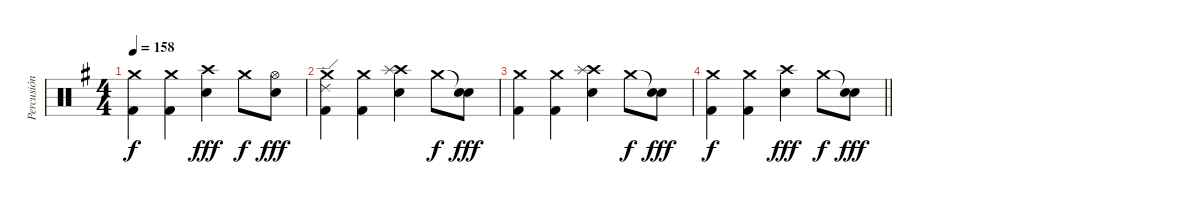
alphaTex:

\track ("Percusión" "Percusión") {instrument percussion}
\staff {score}
\articulation defaults
\ts (4 4)
\tempo 158
\clef neutral
\ks g
("Crash medium (hit)" "Kick (hit) 2").4{dy f} ("Crash medium (hit)" "Kick (hit) 2").4 ("Crash high (hit)" "Snare (hit) 2").4{dy fff} "Crash medium (hit)".8{dy f} ("Hi-Hat (open)" "Snare (hit) 2").8{dy fff} |
("Crash medium (hit)" "Ride (edge) 2" "Kick (hit) 2").4 ("Crash medium (hit)" "Kick (hit) 2").4 ("Crash high (hit)" "Splash (hit)" "Snare (hit) 2").4 "Crash medium (hit)".8{dy f} ("Snare (hit)"{t} "Snare (hit) 2").8{dy fff} |
("Crash medium (hit)" "Kick (hit) 2").4 ("Crash medium (hit)" "Kick (hit) 2").4 ("Crash high (hit)" "Splash (hit)" "Snare (hit) 2").4 "Crash medium (hit)".8{dy f} ("Snare (hit)"{t} "Snare (hit) 2").8{dy fff} |
\barLineRight lightlight
("Crash medium (hit)" "Kick (hit) 2").4{dy f} ("Crash medium (hit)" "Kick (hit) 2").4 ("Crash high (hit)" "Snare (hit) 2").4{dy fff} "Crash medium (hit)".8{dy f} ("Snare (hit)"{t} "Snare (hit) 2").8{dy fff}
